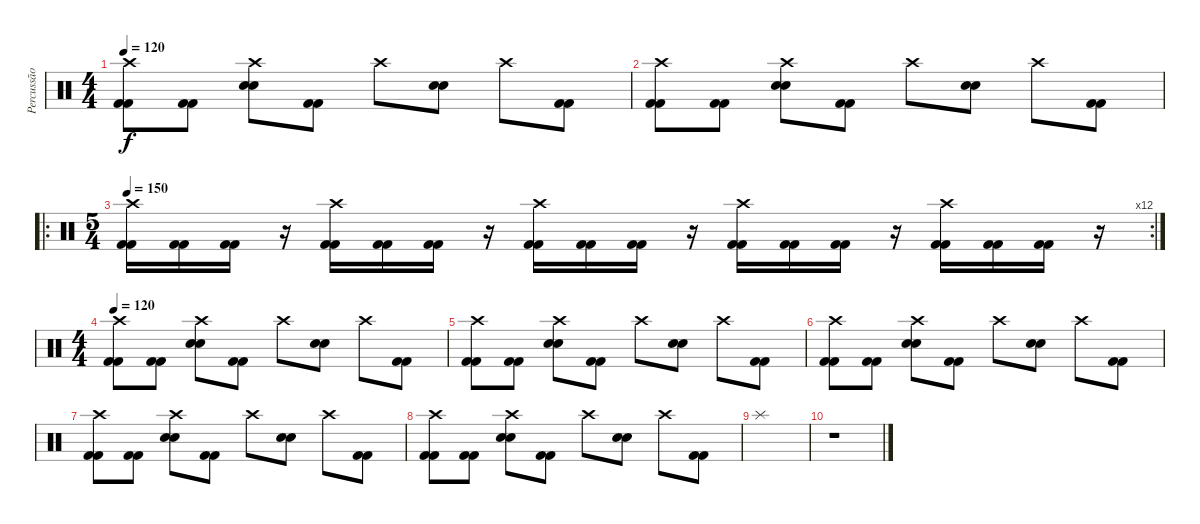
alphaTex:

\track ("Percussão" "Percussão") {instrument percussion}
\staff {score}
\articulation defaults
\ts (4 4)
\tempo 120
\clef neutral
\ks c
("Crash high (hit)" "Kick (hit) 2" "Kick (hit) 2").8{dy f} ("Kick (hit) 2" "Kick (hit) 2").8 ("Crash high (hit)" "Snare (hit) 2" "Snare (hit) 2").8 ("Kick (hit) 2" "Kick (hit) 2").8 "Crash high (hit)".8 ("Snare (hit) 2" "Snare (hit) 2").8 "Crash high (hit)".8 ("Kick (hit) 2" "Kick (hit) 2").8 |
("Crash high (hit)" "Kick (hit) 2" "Kick (hit) 2").8 ("Kick (hit) 2" "Kick (hit) 2").8 ("Crash high (hit)" "Snare (hit) 2" "Snare (hit) 2").8 ("Kick (hit) 2" "Kick (hit) 2").8 "Crash high (hit)".8 ("Snare (hit) 2" "Snare (hit) 2").8 "Crash high (hit)".8 ("Kick (hit) 2" "Kick (hit) 2").8 |
\ro
\rc 12
\ts (5 4)
\tempo 150
("Crash high (hit)" "Kick (hit) 2" "Kick (hit) 2").16 ("Kick (hit) 2" "Kick (hit) 2").16 ("Kick (hit) 2" "Kick (hit) 2").16 r.16 ("Crash high (hit)" "Kick (hit) 2" "Kick (hit) 2").16 ("Kick (hit) 2" "Kick (hit) 2").16 ("Kick (hit) 2" "Kick (hit) 2").16 r.16 ("Crash high (hit)" "Kick (hit) 2" "Kick (hit) 2").16 ("Kick (hit) 2" "Kick (hit) 2").16 ("Kick (hit) 2" "Kick (hit) 2").16 r.16 ("Crash high (hit)" "Kick (hit) 2" "Kick (hit) 2").16 ("Kick (hit) 2" "Kick (hit) 2").16 ("Kick (hit) 2" "Kick (hit) 2").16 r.16 ("Crash high (hit)" "Kick (hit) 2" "Kick (hit) 2").16 ("Kick (hit) 2" "Kick (hit) 2").16 ("Kick (hit) 2" "Kick (hit) 2").16 r.16 |
\ts (4 4)
\tempo 120
("Crash high (hit)" "Kick (hit) 2" "Kick (hit) 2").8 ("Kick (hit) 2" "Kick (hit) 2").8 ("Crash high (hit)" "Snare (hit) 2" "Snare (hit) 2").8 ("Kick (hit) 2" "Kick (hit) 2").8 "Crash high (hit)".8 ("Snare (hit) 2" "Snare (hit) 2").8 "Crash high (hit)".8 ("Kick (hit) 2" "Kick (hit) 2").8 |
("Crash high (hit)" "Kick (hit) 2" "Kick (hit) 2").8 ("Kick (hit) 2" "Kick (hit) 2").8 ("Crash high (hit)" "Snare (hit) 2" "Snare (hit) 2").8 ("Kick (hit) 2" "Kick (hit) 2").8 "Crash high (hit)".8 ("Snare (hit) 2" "Snare (hit) 2").8 "Crash high (hit)".8 ("Kick (hit) 2" "Kick (hit) 2").8 |
("Crash high (hit)" "Kick (hit) 2" "Kick (hit) 2").8 ("Kick (hit) 2" "Kick (hit) 2").8 ("Crash high (hit)" "Snare (hit) 2" "Snare (hit) 2").8 ("Kick (hit) 2" "Kick (hit) 2").8 "Crash high (hit)".8 ("Snare (hit) 2" "Snare (hit) 2").8 "Crash high (hit)".8 ("Kick (hit) 2" "Kick (hit) 2").8 |
("Crash high (hit)" "Kick (hit) 2" "Kick (hit) 2").8 ("Kick (hit) 2" "Kick (hit) 2").8 ("Crash high (hit)" "Snare (hit) 2" "Snare (hit) 2").8 ("Kick (hit) 2" "Kick (hit) 2").8 "Crash high (hit)".8 ("Snare (hit) 2" "Snare (hit) 2").8 "Crash high (hit)".8 ("Kick (hit) 2" "Kick (hit) 2").8 |
("Crash high (hit)" "Kick (hit) 2" "Kick (hit) 2").8 ("Kick (hit) 2" "Kick (hit) 2").8 ("Crash high (hit)" "Snare (hit) 2" "Snare (hit) 2").8 ("Kick (hit) 2" "Kick (hit) 2").8 "Crash high (hit)".8 ("Snare (hit) 2" "Snare (hit) 2").8 "Crash high (hit)".8 ("Kick (hit) 2" "Kick (hit) 2").8 |
"Splash (hit)".1 |
r.1
